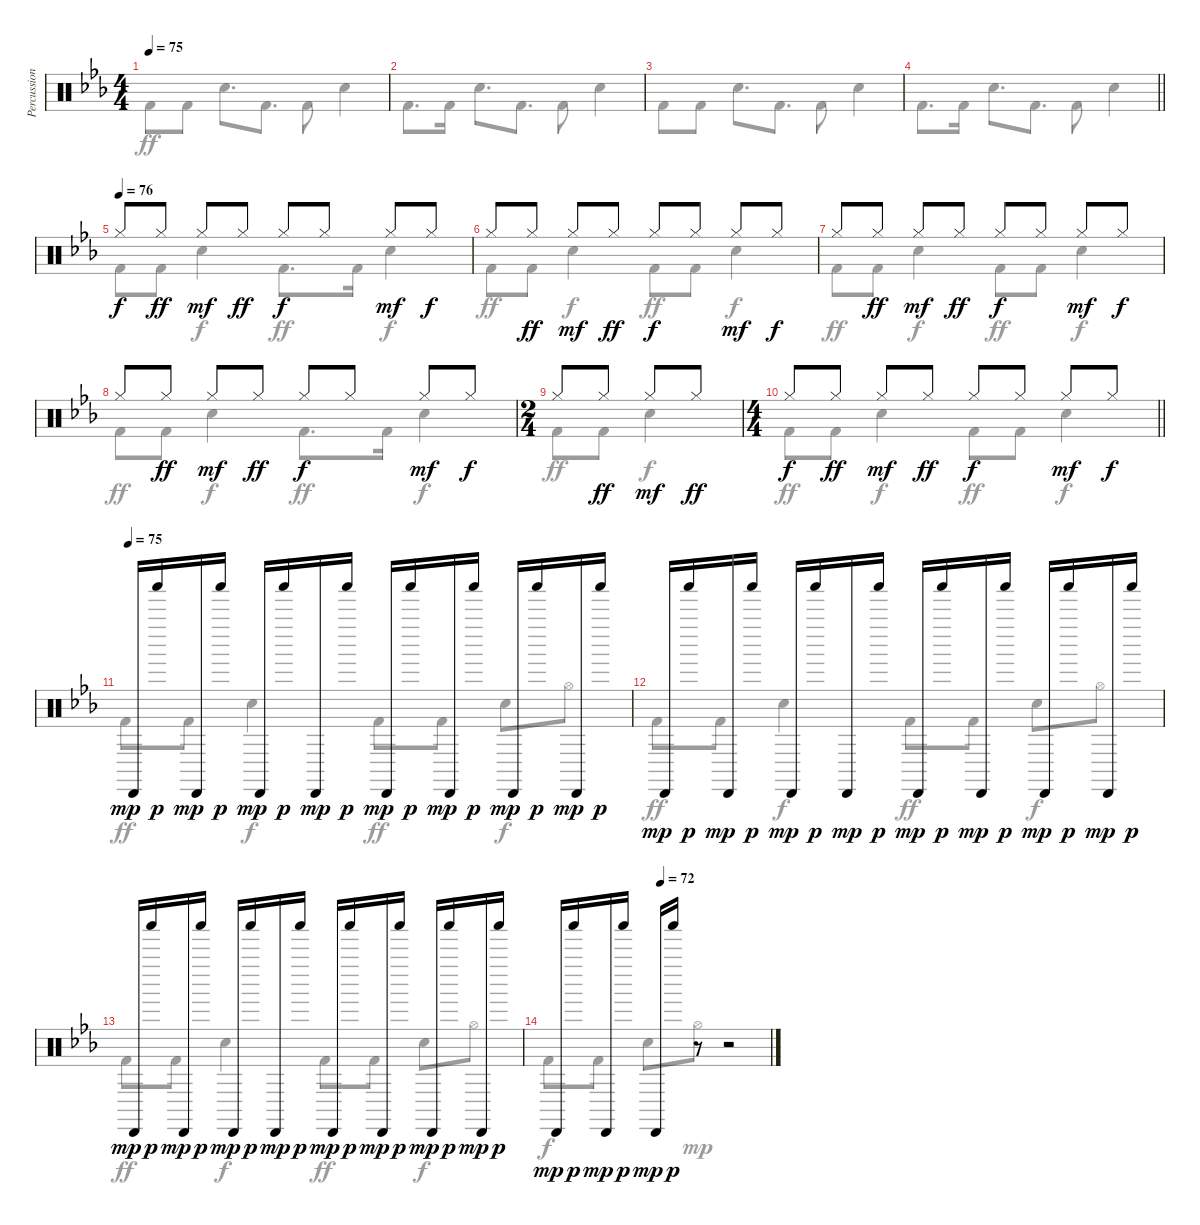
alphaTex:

\track ("Percussion" "Percussion") {instrument percussion}
\staff {score}
\articulation defaults
\voice
\ts (4 4)
\tempo 75
\clef neutral
\ks cminor
|
|
|
\barLineRight lightlight
|
\tempo (76)
"Hi-Hat (closed)".8 "Hi-Hat (closed)".8{dy ff} "Hi-Hat (closed)".8{dy mf} "Hi-Hat (closed)".8{dy ff} "Hi-Hat (closed)".8{dy f} "Hi-Hat (closed)".8 "Hi-Hat (closed)".8{dy mf} "Hi-Hat (closed)".8{dy f} |
"Hi-Hat (closed)".8 "Hi-Hat (closed)".8{dy ff} "Hi-Hat (closed)".8{dy mf} "Hi-Hat (closed)".8{dy ff} "Hi-Hat (closed)".8{dy f} "Hi-Hat (closed)".8 "Hi-Hat (closed)".8{dy mf} "Hi-Hat (closed)".8{dy f} |
"Hi-Hat (closed)".8 "Hi-Hat (closed)".8{dy ff} "Hi-Hat (closed)".8{dy mf} "Hi-Hat (closed)".8{dy ff} "Hi-Hat (closed)".8{dy f} "Hi-Hat (closed)".8 "Hi-Hat (closed)".8{dy mf} "Hi-Hat (closed)".8{dy f} |
"Hi-Hat (closed)".8 "Hi-Hat (closed)".8{dy ff} "Hi-Hat (closed)".8{dy mf} "Hi-Hat (closed)".8{dy ff} "Hi-Hat (closed)".8{dy f} "Hi-Hat (closed)".8 "Hi-Hat (closed)".8{dy mf} "Hi-Hat (closed)".8{dy f} |
\ts (2 4)
"Hi-Hat (closed)".8 "Hi-Hat (closed)".8{dy ff} "Hi-Hat (closed)".8{dy mf} "Hi-Hat (closed)".8{dy ff} |
\ts (4 4)
\barLineRight lightlight "Hi-Hat (closed)".8{dy f} "Hi-Hat (closed)".8{dy ff} "Hi-Hat (closed)".8{dy mf} "Hi-Hat (closed)".8{dy ff} "Hi-Hat (closed)".8{dy f} "Hi-Hat (closed)".8 "Hi-Hat (closed)".8{dy mf} "Hi-Hat (closed)".8{dy f}
|
\tempo (75)
"Cabasa (hit)".16{dy mp} "Shaker (hit)".16{dy p} "Cabasa (hit)".16{dy mp} "Shaker (hit)".16{dy p} "Cabasa (hit)".16{dy mp} "Shaker (hit)".16{dy p} "Cabasa (hit)".16{dy mp} "Shaker (hit)".16{dy p} "Cabasa (hit)".16{dy mp} "Shaker (hit)".16{dy p} "Cabasa (hit)".16{dy mp} "Shaker (hit)".16{dy p} "Cabasa (hit)".16{dy mp} "Shaker (hit)".16{dy p} "Cabasa (hit)".16{dy mp} "Shaker (hit)".16{dy p} |
"Cabasa (hit)".16{dy mp} "Shaker (hit)".16{dy p} "Cabasa (hit)".16{dy mp} "Shaker (hit)".16{dy p} "Cabasa (hit)".16{dy mp} "Shaker (hit)".16{dy p} "Cabasa (hit)".16{dy mp} "Shaker (hit)".16{dy p} "Cabasa (hit)".16{dy mp} "Shaker (hit)".16{dy p} "Cabasa (hit)".16{dy mp} "Shaker (hit)".16{dy p} "Cabasa (hit)".16{dy mp} "Shaker (hit)".16{dy p} "Cabasa (hit)".16{dy mp} "Shaker (hit)".16{dy p} |
"Cabasa (hit)".16{dy mp} "Shaker (hit)".16{dy p} "Cabasa (hit)".16{dy mp} "Shaker (hit)".16{dy p} "Cabasa (hit)".16{dy mp} "Shaker (hit)".16{dy p} "Cabasa (hit)".16{dy mp} "Shaker (hit)".16{dy p} "Cabasa (hit)".16{dy mp} "Shaker (hit)".16{dy p} "Cabasa (hit)".16{dy mp} "Shaker (hit)".16{dy p} "Cabasa (hit)".16{dy mp} "Shaker (hit)".16{dy p} "Cabasa (hit)".16{dy mp} "Shaker (hit)".16{dy p} |
\tempo (72 0.5)
"Cabasa (hit)".16{dy mp} "Shaker (hit)".16{dy p} "Cabasa (hit)".16{dy mp} "Shaker (hit)".16{dy p} "Cabasa (hit)".16{dy mp} "Shaker (hit)".16{dy p} r.8 r.2
\voice
\clef neutral
\ottava regular
\simile none
\ks cminor "Kick (hit) 2".8{dy ff} "Kick (hit) 2".8 "Electric Snare (hit)".8{d} "Kick (hit) 2".8{d} "Kick (hit) 2".8 "Electric Snare (hit)".4
|
"Kick (hit) 2".8{d} "Kick (hit) 2".16 "Electric Snare (hit)".8{d} "Kick (hit) 2".8{d} "Kick (hit) 2".8 "Electric Snare (hit)".4 |
"Kick (hit) 2".8 "Kick (hit) 2".8 "Electric Snare (hit)".8{d} "Kick (hit) 2".8{d} "Kick (hit) 2".8 "Electric Snare (hit)".4 |
\barLineRight lightlight "Kick (hit) 2".8{d} "Kick (hit) 2".16 "Electric Snare (hit)".8{d} "Kick (hit) 2".8{d} "Kick (hit) 2".8 "Electric Snare (hit)".4
|
"Kick (hit) 2".8 "Kick (hit) 2".8 "Electric Snare (hit)".4{dy f} "Kick (hit) 2".8{d dy ff} "Kick (hit) 2".16 "Electric Snare (hit)".4{dy f} |
"Kick (hit) 2".8{dy ff} "Kick (hit) 2".8 "Electric Snare (hit)".4{dy f} "Kick (hit) 2".8{dy ff} "Kick (hit) 2".8 "Electric Snare (hit)".4{dy f} |
"Kick (hit) 2".8{dy ff} "Kick (hit) 2".8 "Electric Snare (hit)".4{dy f} "Kick (hit) 2".8{dy ff} "Kick (hit) 2".8 "Electric Snare (hit)".4{dy f} |
"Kick (hit) 2".8{dy ff} "Kick (hit) 2".8 "Electric Snare (hit)".4{dy f} "Kick (hit) 2".8{d dy ff} "Kick (hit) 2".16 "Electric Snare (hit)".4{dy f} |
"Kick (hit) 2".8{dy ff} "Kick (hit) 2".8 "Electric Snare (hit)".4{dy f} |
\barLineRight lightlight "Kick (hit) 2".8{dy ff} "Kick (hit) 2".8 "Electric Snare (hit)".4{dy f} "Kick (hit) 2".8{dy ff} "Kick (hit) 2".8 "Electric Snare (hit)".4{dy f}
|
"Kick (hit) 2".8{dy ff} "Kick (hit) 2".8 "Electric Snare (hit)".4{dy f} "Kick (hit) 2".8{dy ff} "Kick (hit) 2".8 "Electric Snare (hit)".8{dy f} "Hi-Hat (open)".8{dy mp} |
"Kick (hit) 2".8{dy ff} "Kick (hit) 2".8 "Electric Snare (hit)".4{dy f} "Kick (hit) 2".8{dy ff} "Kick (hit) 2".8 "Electric Snare (hit)".8{dy f} "Hi-Hat (open)".8{dy mp} |
"Kick (hit) 2".8{dy ff} "Kick (hit) 2".8 "Electric Snare (hit)".4{dy f} "Kick (hit) 2".8{dy ff} "Kick (hit) 2".8 "Electric Snare (hit)".8{dy f} "Hi-Hat (open)".8{dy mp} |
"Kick (hit) 2".8{dy f} "Kick (hit) 2".8 "Electric Snare (hit)".8 "Hi-Hat (open)".8{dy mp} r.2
